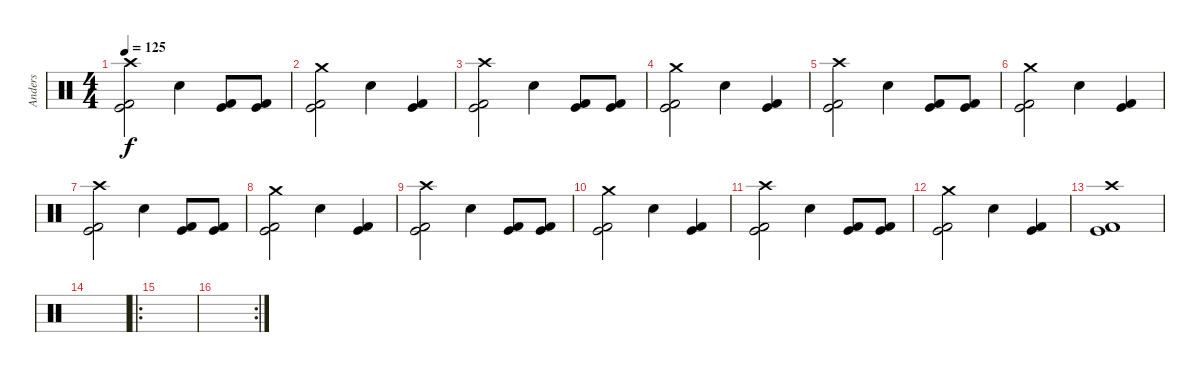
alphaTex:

\track ("Anders" "Anders") {instrument percussion}
\staff {score}
\articulation defaults
\ts (4 4)
\tempo 125
\clef neutral
\ks c
("Crash high (hit)" "Kick (hit) 2" "Kick (hit)").2{dy f} "Electric Snare (hit)".4 ("Kick (hit) 2" "Kick (hit)").8 ("Kick (hit) 2" "Kick (hit)").8 |
("Crash medium (hit)" "Kick (hit)" "Kick (hit) 2").2 "Electric Snare (hit)".4 ("Kick (hit) 2" "Kick (hit)").4 |
("Crash high (hit)" "Kick (hit) 2" "Kick (hit)").2 "Electric Snare (hit)".4 ("Kick (hit) 2" "Kick (hit)").8 ("Kick (hit) 2" "Kick (hit)").8 |
("Crash medium (hit)" "Kick (hit)" "Kick (hit) 2").2 "Electric Snare (hit)".4 ("Kick (hit) 2" "Kick (hit)").4 |
("Crash high (hit)" "Kick (hit) 2" "Kick (hit)").2 "Electric Snare (hit)".4 ("Kick (hit) 2" "Kick (hit)").8 ("Kick (hit) 2" "Kick (hit)").8 |
("Crash medium (hit)" "Kick (hit)" "Kick (hit) 2").2 "Electric Snare (hit)".4 ("Kick (hit) 2" "Kick (hit)").4 |
("Crash high (hit)" "Kick (hit) 2" "Kick (hit)").2 "Electric Snare (hit)".4 ("Kick (hit) 2" "Kick (hit)").8 ("Kick (hit) 2" "Kick (hit)").8 |
("Crash medium (hit)" "Kick (hit)" "Kick (hit) 2").2 "Electric Snare (hit)".4 ("Kick (hit) 2" "Kick (hit)").4 |
("Crash high (hit)" "Kick (hit) 2" "Kick (hit)").2 "Electric Snare (hit)".4 ("Kick (hit) 2" "Kick (hit)").8 ("Kick (hit) 2" "Kick (hit)").8 |
("Crash medium (hit)" "Kick (hit)" "Kick (hit) 2").2 "Electric Snare (hit)".4 ("Kick (hit) 2" "Kick (hit)").4 |
("Crash high (hit)" "Kick (hit) 2" "Kick (hit)").2 "Electric Snare (hit)".4 ("Kick (hit) 2" "Kick (hit)").8 ("Kick (hit) 2" "Kick (hit)").8 |
("Crash medium (hit)" "Kick (hit)" "Kick (hit) 2").2 "Electric Snare (hit)".4 ("Kick (hit) 2" "Kick (hit)").4 |
("Crash high (hit)" "Kick (hit) 2" "Kick (hit)").1 |
|
\ro
|
\rc 2
